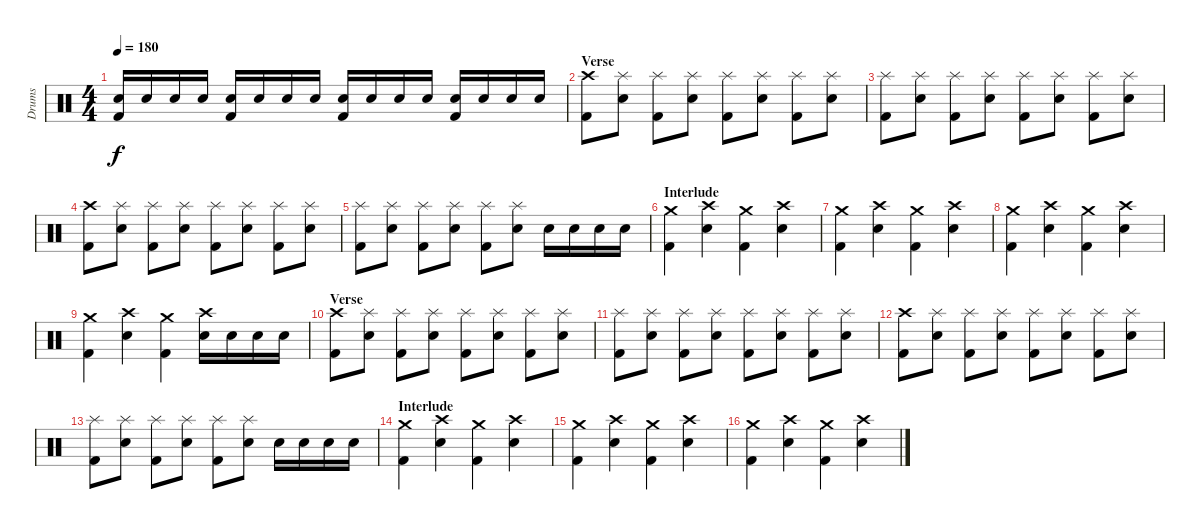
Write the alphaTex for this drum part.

\track ("Drums" "Drums") {instrument percussion}
\staff {score}
\articulation defaults
\ts (4 4)
\tempo 180
\clef neutral
\ks c
("Electric Snare (hit)" "Kick (hit) 2").16{dy f} "Electric Snare (hit)".16 "Electric Snare (hit)".16 "Electric Snare (hit)".16 ("Electric Snare (hit)" "Kick (hit) 2").16 "Electric Snare (hit)".16 "Electric Snare (hit)".16 "Electric Snare (hit)".16 ("Electric Snare (hit)" "Kick (hit) 2").16 "Electric Snare (hit)".16 "Electric Snare (hit)".16 "Electric Snare (hit)".16 ("Electric Snare (hit)" "Kick (hit) 2").16 "Electric Snare (hit)".16 "Electric Snare (hit)".16 "Electric Snare (hit)".16 |
\section ("" "Verse")
("Crash high (hit)" "Kick (hit) 2").8 ("Splash (hit)" "Electric Snare (hit)").8 ("Splash (hit)" "Kick (hit) 2").8 ("Splash (hit)" "Electric Snare (hit)").8 ("Splash (hit)" "Kick (hit) 2").8 ("Splash (hit)" "Electric Snare (hit)").8 ("Splash (hit)" "Kick (hit) 2").8 ("Splash (hit)" "Electric Snare (hit)").8 |
("Splash (hit)" "Kick (hit) 2").8 ("Splash (hit)" "Electric Snare (hit)").8 ("Splash (hit)" "Kick (hit) 2").8 ("Splash (hit)" "Electric Snare (hit)").8 ("Splash (hit)" "Kick (hit) 2").8 ("Splash (hit)" "Electric Snare (hit)").8 ("Splash (hit)" "Kick (hit) 2").8 ("Splash (hit)" "Electric Snare (hit)").8 |
("Crash high (hit)" "Kick (hit) 2").8 ("Splash (hit)" "Electric Snare (hit)").8 ("Splash (hit)" "Kick (hit) 2").8 ("Splash (hit)" "Electric Snare (hit)").8 ("Splash (hit)" "Kick (hit) 2").8 ("Splash (hit)" "Electric Snare (hit)").8 ("Splash (hit)" "Kick (hit) 2").8 ("Splash (hit)" "Electric Snare (hit)").8 |
("Splash (hit)" "Kick (hit) 2").8 ("Splash (hit)" "Electric Snare (hit)").8 ("Splash (hit)" "Kick (hit) 2").8 ("Splash (hit)" "Electric Snare (hit)").8 ("Splash (hit)" "Kick (hit) 2").8 ("Splash (hit)" "Electric Snare (hit)").8 "Electric Snare (hit)".16 "Electric Snare (hit)".16 "Electric Snare (hit)".16 "Electric Snare (hit)".16 |
\section ("" "Interlude")
("Crash medium (hit)" "Kick (hit) 2").4 ("Crash high (hit)" "Electric Snare (hit)").4 ("Crash medium (hit)" "Kick (hit) 2").4 ("Crash high (hit)" "Electric Snare (hit)").4 |
("Crash medium (hit)" "Kick (hit) 2").4 ("Crash high (hit)" "Electric Snare (hit)").4 ("Crash medium (hit)" "Kick (hit) 2").4 ("Crash high (hit)" "Electric Snare (hit)").4 |
("Crash medium (hit)" "Kick (hit) 2").4 ("Crash high (hit)" "Electric Snare (hit)").4 ("Crash medium (hit)" "Kick (hit) 2").4 ("Crash high (hit)" "Electric Snare (hit)").4 |
("Crash medium (hit)" "Kick (hit) 2").4 ("Crash high (hit)" "Electric Snare (hit)").4 ("Crash medium (hit)" "Kick (hit) 2").4 ("Crash high (hit)" "Electric Snare (hit)").16 "Electric Snare (hit)".16 "Electric Snare (hit)".16 "Electric Snare (hit)".16 |
\section ("" "Verse")
("Crash high (hit)" "Kick (hit) 2").8 ("Splash (hit)" "Electric Snare (hit)").8 ("Splash (hit)" "Kick (hit) 2").8 ("Splash (hit)" "Electric Snare (hit)").8 ("Splash (hit)" "Kick (hit) 2").8 ("Splash (hit)" "Electric Snare (hit)").8 ("Splash (hit)" "Kick (hit) 2").8 ("Splash (hit)" "Electric Snare (hit)").8 |
("Splash (hit)" "Kick (hit) 2").8 ("Splash (hit)" "Electric Snare (hit)").8 ("Splash (hit)" "Kick (hit) 2").8 ("Splash (hit)" "Electric Snare (hit)").8 ("Splash (hit)" "Kick (hit) 2").8 ("Splash (hit)" "Electric Snare (hit)").8 ("Splash (hit)" "Kick (hit) 2").8 ("Splash (hit)" "Electric Snare (hit)").8 |
("Crash high (hit)" "Kick (hit) 2").8 ("Splash (hit)" "Electric Snare (hit)").8 ("Splash (hit)" "Kick (hit) 2").8 ("Splash (hit)" "Electric Snare (hit)").8 ("Splash (hit)" "Kick (hit) 2").8 ("Splash (hit)" "Electric Snare (hit)").8 ("Splash (hit)" "Kick (hit) 2").8 ("Splash (hit)" "Electric Snare (hit)").8 |
("Splash (hit)" "Kick (hit) 2").8 ("Splash (hit)" "Electric Snare (hit)").8 ("Splash (hit)" "Kick (hit) 2").8 ("Splash (hit)" "Electric Snare (hit)").8 ("Splash (hit)" "Kick (hit) 2").8 ("Splash (hit)" "Electric Snare (hit)").8 "Electric Snare (hit)".16 "Electric Snare (hit)".16 "Electric Snare (hit)".16 "Electric Snare (hit)".16 |
\section ("" "Interlude")
("Crash medium (hit)" "Kick (hit) 2").4 ("Crash high (hit)" "Electric Snare (hit)").4 ("Crash medium (hit)" "Kick (hit) 2").4 ("Crash high (hit)" "Electric Snare (hit)").4 |
("Crash medium (hit)" "Kick (hit) 2").4 ("Crash high (hit)" "Electric Snare (hit)").4 ("Crash medium (hit)" "Kick (hit) 2").4 ("Crash high (hit)" "Electric Snare (hit)").4 |
("Crash medium (hit)" "Kick (hit) 2").4 ("Crash high (hit)" "Electric Snare (hit)").4 ("Crash medium (hit)" "Kick (hit) 2").4 ("Crash high (hit)" "Electric Snare (hit)").4
